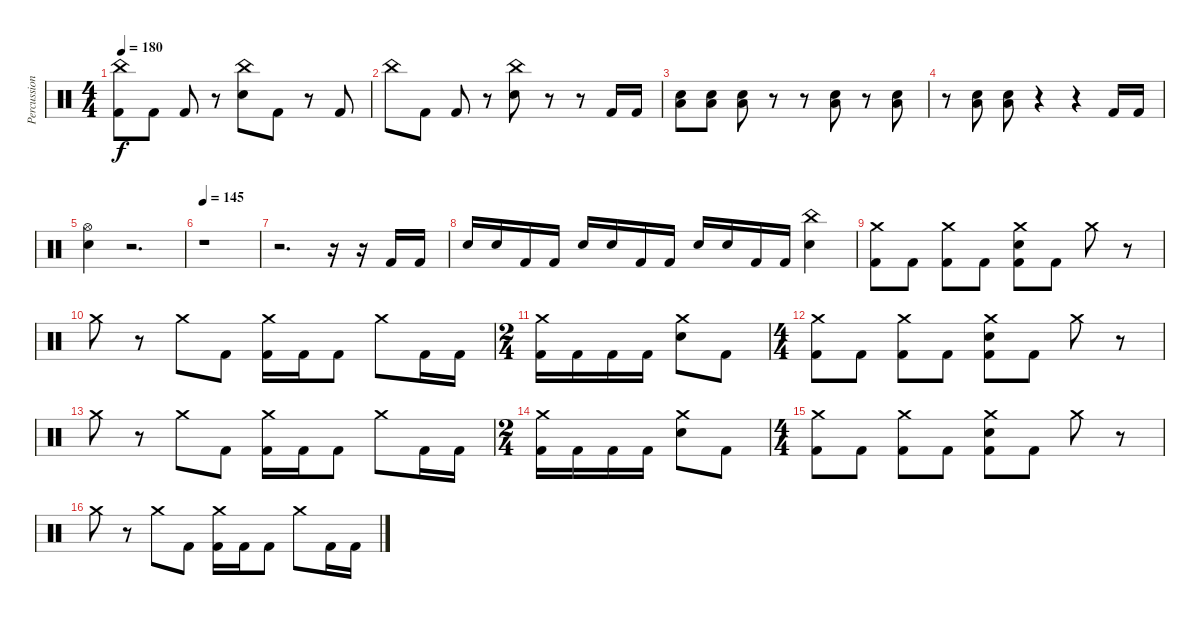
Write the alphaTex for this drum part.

\track ("Percussion" "Percussion") {instrument percussion}
\staff {score}
\articulation defaults
\ts (4 4)
\tempo 180
\clef neutral
\ks c
("China (hit)" "Kick (hit) 2").8{dy f} "Kick (hit) 2".8 "Kick (hit) 2".8 r.8 ("China (hit)" "Snare (hit) 2").8 "Kick (hit) 2".8 r.8 "Kick (hit) 2".8 |
"China (hit)".8 "Kick (hit) 2".8 "Kick (hit) 2".8 r.8 ("China (hit)" "Snare (hit) 2").8 r.8 r.8 "Kick (hit) 2".16 "Kick (hit) 2".16 |
("Low Floor Tom (hit)" "Snare (hit) 2").8 ("Low Floor Tom (hit)" "Snare (hit) 2").8 ("Low Floor Tom (hit)" "Snare (hit) 2").8 r.8 r.8 ("Low Floor Tom (hit)" "Snare (hit) 2").8 r.8 ("Low Floor Tom (hit)" "Snare (hit) 2").8 |
r.8 ("Low Floor Tom (hit)" "Snare (hit) 2").8 ("Low Floor Tom (hit)" "Snare (hit) 2").8 r.4 r.4 "Kick (hit) 2".16 "Kick (hit) 2".16 |
("Hi-Hat (open)" "Snare (hit) 2").4 r.2{d} |
\tempo 145
r.1 |
r.2{d} r.16 r.16 "Kick (hit) 2".16 "Kick (hit) 2".16 |
"Snare (hit) 2".16 "Snare (hit) 2".16 "Kick (hit) 2".16 "Kick (hit) 2".16 "Snare (hit) 2".16 "Snare (hit) 2".16 "Kick (hit) 2".16 "Kick (hit) 2".16 "Snare (hit) 2".16 "Snare (hit) 2".16 "Kick (hit) 2".16 "Kick (hit) 2".16 ("China (hit)" "Snare (hit) 2").4 |
("Crash medium (hit)" "Kick (hit) 2").8 "Kick (hit) 2".8 ("Crash medium (hit)" "Kick (hit) 2").8 "Kick (hit) 2".8 ("Crash medium (hit)" "Snare (hit) 2" "Kick (hit) 2").8 "Kick (hit) 2".8 "Crash medium (hit)".8 r.8 |
"Crash medium (hit)".8 r.8 "Crash medium (hit)".8 "Kick (hit) 2".8 ("Crash medium (hit)" "Kick (hit) 2").16 "Kick (hit) 2".16 "Kick (hit) 2".8 "Crash medium (hit)".8 "Kick (hit) 2".16 "Kick (hit) 2".16 |
\ts (2 4)
("Crash medium (hit)" "Kick (hit) 2").16 "Kick (hit) 2".16 "Kick (hit) 2".16 "Kick (hit) 2".16 ("Crash medium (hit)" "Snare (hit) 2").8 "Kick (hit) 2".8 |
\ts (4 4)
("Crash medium (hit)" "Kick (hit) 2").8 "Kick (hit) 2".8 ("Crash medium (hit)" "Kick (hit) 2").8 "Kick (hit) 2".8 ("Crash medium (hit)" "Snare (hit) 2" "Kick (hit) 2").8 "Kick (hit) 2".8 "Crash medium (hit)".8 r.8 |
"Crash medium (hit)".8 r.8 "Crash medium (hit)".8 "Kick (hit) 2".8 ("Crash medium (hit)" "Kick (hit) 2").16 "Kick (hit) 2".16 "Kick (hit) 2".8 "Crash medium (hit)".8 "Kick (hit) 2".16 "Kick (hit) 2".16 |
\ts (2 4)
("Crash medium (hit)" "Kick (hit) 2").16 "Kick (hit) 2".16 "Kick (hit) 2".16 "Kick (hit) 2".16 ("Crash medium (hit)" "Snare (hit) 2").8 "Kick (hit) 2".8 |
\ts (4 4)
("Crash medium (hit)" "Kick (hit) 2").8 "Kick (hit) 2".8 ("Crash medium (hit)" "Kick (hit) 2").8 "Kick (hit) 2".8 ("Crash medium (hit)" "Snare (hit) 2" "Kick (hit) 2").8 "Kick (hit) 2".8 "Crash medium (hit)".8 r.8 |
"Crash medium (hit)".8 r.8 "Crash medium (hit)".8 "Kick (hit) 2".8 ("Crash medium (hit)" "Kick (hit) 2").16 "Kick (hit) 2".16 "Kick (hit) 2".8 "Crash medium (hit)".8 "Kick (hit) 2".16 "Kick (hit) 2".16
